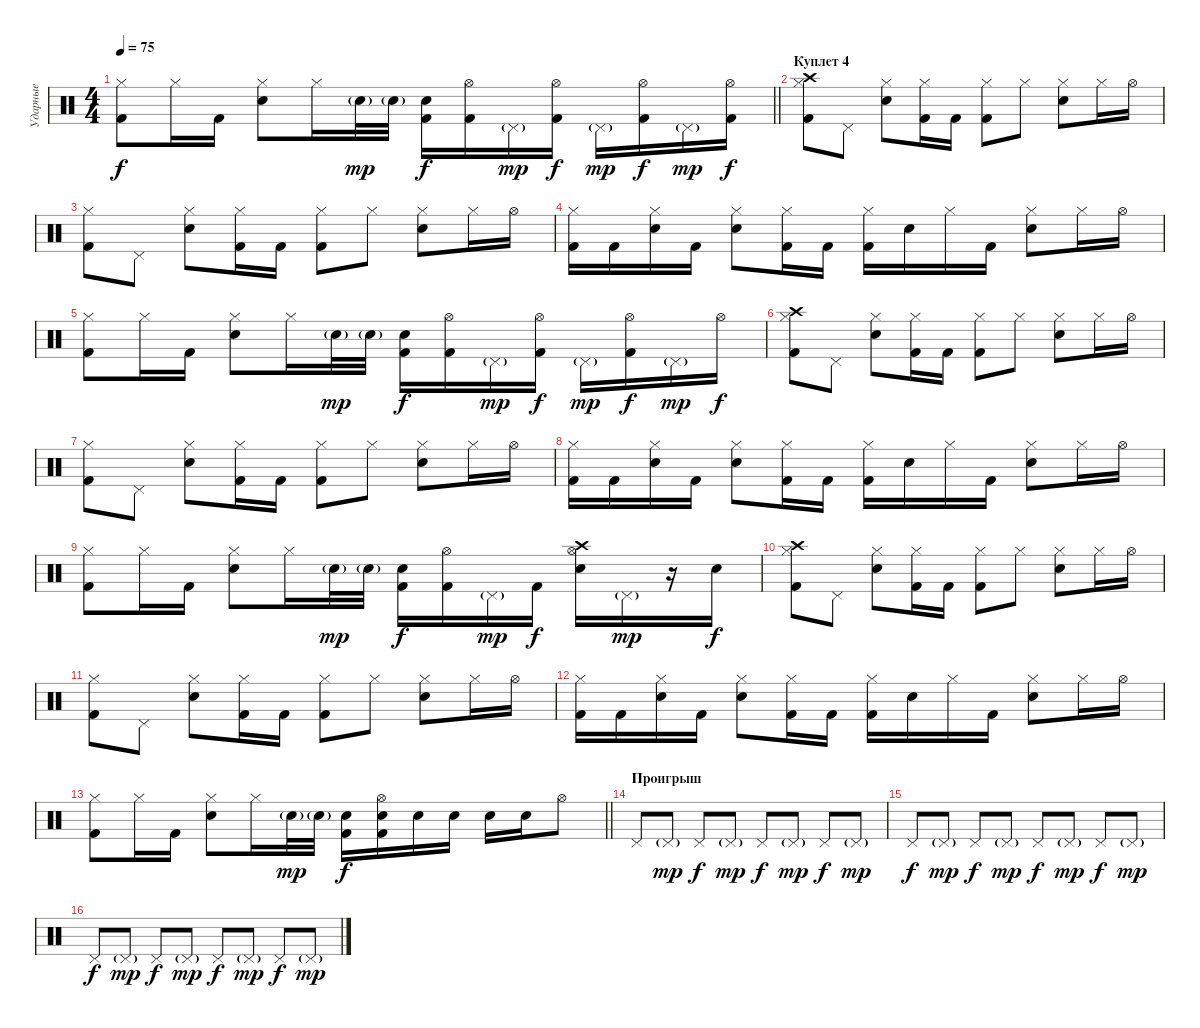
\track ("Ударные" "Ударные") {instrument percussion}
\staff {score}
\articulation defaults
\ts (4 4)
\tempo 75
\clef neutral
\barLineRight lightlight
\ks c
("Hi-Hat (closed)" "Kick (hit) 2").8{dy f} "Hi-Hat (closed)".16 "Kick (hit) 2".16 ("Hi-Hat (closed)" "Electric Snare (hit)").8 "Hi-Hat (closed)".16 "Electric Snare (hit)"{g}.32{dy mp} "Electric Snare (hit)"{g}.32 ("Electric Snare (hit)" "Kick (hit) 2").16{dy f} ("Hi-Hat (open)" "Kick (hit) 2").16 "Pedal Hi-Hat (hit)"{g}.16{dy mp} ("Hi-Hat (open)" "Kick (hit) 2").16{dy f} "Pedal Hi-Hat (hit)"{g}.16{dy mp} ("Hi-Hat (open)" "Kick (hit) 2").16{dy f} "Pedal Hi-Hat (hit)"{g}.16{dy mp} ("Hi-Hat (open)" "Kick (hit) 2").16{dy f} |
\section ("" "Куплет 4")
("Crash high (hit)" "Hi-Hat (closed)" "Kick (hit) 2").8 "Pedal Hi-Hat (hit)".8 ("Hi-Hat (closed)" "Electric Snare (hit)").8 ("Hi-Hat (closed)" "Kick (hit) 2").16 "Kick (hit) 2".16 ("Hi-Hat (closed)" "Kick (hit) 2").8 "Hi-Hat (closed)".8 ("Hi-Hat (closed)" "Electric Snare (hit)").8 "Hi-Hat (closed)".16 "Hi-Hat (open)".16 |
("Hi-Hat (closed)" "Kick (hit) 2").8 "Pedal Hi-Hat (hit)".8 ("Hi-Hat (closed)" "Electric Snare (hit)").8 ("Hi-Hat (closed)" "Kick (hit) 2").16 "Kick (hit) 2".16 ("Hi-Hat (closed)" "Kick (hit) 2").8 "Hi-Hat (closed)".8 ("Hi-Hat (closed)" "Electric Snare (hit)").8 "Hi-Hat (closed)".16 "Hi-Hat (open)".16 |
("Hi-Hat (closed)" "Kick (hit) 2").16 "Kick (hit) 2".16 ("Hi-Hat (closed)" "Electric Snare (hit)").16 "Kick (hit) 2".16 ("Hi-Hat (closed)" "Electric Snare (hit)").8 ("Hi-Hat (closed)" "Kick (hit) 2").16 "Kick (hit) 2".16 ("Hi-Hat (closed)" "Kick (hit) 2").16 "Electric Snare (hit)".16 "Hi-Hat (closed)".16 "Kick (hit) 2".16 ("Hi-Hat (closed)" "Electric Snare (hit)").8 "Hi-Hat (closed)".16 "Hi-Hat (open)".16 |
("Hi-Hat (closed)" "Kick (hit) 2").8 "Hi-Hat (closed)".16 "Kick (hit) 2".16 ("Hi-Hat (closed)" "Electric Snare (hit)").8 "Hi-Hat (closed)".16 "Electric Snare (hit)"{g}.32{dy mp} "Electric Snare (hit)"{g}.32 ("Electric Snare (hit)" "Kick (hit) 2").16{dy f} ("Hi-Hat (open)" "Kick (hit) 2").16 "Pedal Hi-Hat (hit)"{g}.16{dy mp} ("Hi-Hat (open)" "Kick (hit) 2").16{dy f} "Pedal Hi-Hat (hit)"{g}.16{dy mp} ("Hi-Hat (open)" "Kick (hit) 2").16{dy f} "Pedal Hi-Hat (hit)"{g}.16{dy mp} "Hi-Hat (open)".16{dy f} |
("Crash high (hit)" "Hi-Hat (closed)" "Kick (hit) 2").8 "Pedal Hi-Hat (hit)".8 ("Hi-Hat (closed)" "Electric Snare (hit)").8 ("Hi-Hat (closed)" "Kick (hit) 2").16 "Kick (hit) 2".16 ("Hi-Hat (closed)" "Kick (hit) 2").8 "Hi-Hat (closed)".8 ("Hi-Hat (closed)" "Electric Snare (hit)").8 "Hi-Hat (closed)".16 "Hi-Hat (open)".16 |
("Hi-Hat (closed)" "Kick (hit) 2").8 "Pedal Hi-Hat (hit)".8 ("Hi-Hat (closed)" "Electric Snare (hit)").8 ("Hi-Hat (closed)" "Kick (hit) 2").16 "Kick (hit) 2".16 ("Hi-Hat (closed)" "Kick (hit) 2").8 "Hi-Hat (closed)".8 ("Hi-Hat (closed)" "Electric Snare (hit)").8 "Hi-Hat (closed)".16 "Hi-Hat (open)".16 |
("Hi-Hat (closed)" "Kick (hit) 2").16 "Kick (hit) 2".16 ("Hi-Hat (closed)" "Electric Snare (hit)").16 "Kick (hit) 2".16 ("Hi-Hat (closed)" "Electric Snare (hit)").8 ("Hi-Hat (closed)" "Kick (hit) 2").16 "Kick (hit) 2".16 ("Hi-Hat (closed)" "Kick (hit) 2").16 "Electric Snare (hit)".16 "Hi-Hat (closed)".16 "Kick (hit) 2".16 ("Hi-Hat (closed)" "Electric Snare (hit)").8 "Hi-Hat (closed)".16 "Hi-Hat (open)".16 |
("Hi-Hat (closed)" "Kick (hit) 2").8 "Hi-Hat (closed)".16 "Kick (hit) 2".16 ("Hi-Hat (closed)" "Electric Snare (hit)").8 "Hi-Hat (closed)".16 "Electric Snare (hit)"{g}.32{dy mp} "Electric Snare (hit)"{g}.32 ("Electric Snare (hit)" "Kick (hit) 2").16{dy f} ("Hi-Hat (open)" "Kick (hit) 2").16 "Pedal Hi-Hat (hit)"{g}.16{dy mp} "Kick (hit) 2".16{dy f} ("Crash high (hit)" "Hi-Hat (open)" "Electric Snare (hit)").16 "Pedal Hi-Hat (hit)"{g}.16{dy mp} r.16 "Electric Snare (hit)".16{dy f} |
("Crash high (hit)" "Hi-Hat (closed)" "Kick (hit) 2").8 "Pedal Hi-Hat (hit)".8 ("Hi-Hat (closed)" "Electric Snare (hit)").8 ("Hi-Hat (closed)" "Kick (hit) 2").16 "Kick (hit) 2".16 ("Hi-Hat (closed)" "Kick (hit) 2").8 "Hi-Hat (closed)".8 ("Hi-Hat (closed)" "Electric Snare (hit)").8 "Hi-Hat (closed)".16 "Hi-Hat (open)".16 |
("Hi-Hat (closed)" "Kick (hit) 2").8 "Pedal Hi-Hat (hit)".8 ("Hi-Hat (closed)" "Electric Snare (hit)").8 ("Hi-Hat (closed)" "Kick (hit) 2").16 "Kick (hit) 2".16 ("Hi-Hat (closed)" "Kick (hit) 2").8 "Hi-Hat (closed)".8 ("Hi-Hat (closed)" "Electric Snare (hit)").8 "Hi-Hat (closed)".16 "Hi-Hat (open)".16 |
("Hi-Hat (closed)" "Kick (hit) 2").16 "Kick (hit) 2".16 ("Hi-Hat (closed)" "Electric Snare (hit)").16 "Kick (hit) 2".16 ("Hi-Hat (closed)" "Electric Snare (hit)").8 ("Hi-Hat (closed)" "Kick (hit) 2").16 "Kick (hit) 2".16 ("Hi-Hat (closed)" "Kick (hit) 2").16 "Electric Snare (hit)".16 "Hi-Hat (closed)".16 "Kick (hit) 2".16 ("Hi-Hat (closed)" "Electric Snare (hit)").8 "Hi-Hat (closed)".16 "Hi-Hat (open)".16 |
\barLineRight lightlight
("Hi-Hat (closed)" "Kick (hit) 2").8 "Hi-Hat (closed)".16 "Kick (hit) 2".16 ("Hi-Hat (closed)" "Electric Snare (hit)").8 "Hi-Hat (closed)".16 "Electric Snare (hit)"{g}.32{dy mp} "Electric Snare (hit)"{g}.32 ("Electric Snare (hit)" "Kick (hit) 2").16{dy f} ("Hi-Hat (open)" "Electric Snare (hit)" "Kick (hit) 2").16 "Electric Snare (hit)".16 "Electric Snare (hit)".16 "Electric Snare (hit)".16 "Electric Snare (hit)".16 "Hi-Hat (open)".8 |
\section ("" "Проигрыш")
"Pedal Hi-Hat (hit)".8 "Pedal Hi-Hat (hit)"{g}.8{dy mp} "Pedal Hi-Hat (hit)".8{dy f} "Pedal Hi-Hat (hit)"{g}.8{dy mp} "Pedal Hi-Hat (hit)".8{dy f} "Pedal Hi-Hat (hit)"{g}.8{dy mp} "Pedal Hi-Hat (hit)".8{dy f} "Pedal Hi-Hat (hit)"{g}.8{dy mp} |
"Pedal Hi-Hat (hit)".8{dy f} "Pedal Hi-Hat (hit)"{g}.8{dy mp} "Pedal Hi-Hat (hit)".8{dy f} "Pedal Hi-Hat (hit)"{g}.8{dy mp} "Pedal Hi-Hat (hit)".8{dy f} "Pedal Hi-Hat (hit)"{g}.8{dy mp} "Pedal Hi-Hat (hit)".8{dy f} "Pedal Hi-Hat (hit)"{g}.8{dy mp} |
"Pedal Hi-Hat (hit)".8{dy f} "Pedal Hi-Hat (hit)"{g}.8{dy mp} "Pedal Hi-Hat (hit)".8{dy f} "Pedal Hi-Hat (hit)"{g}.8{dy mp} "Pedal Hi-Hat (hit)".8{dy f} "Pedal Hi-Hat (hit)"{g}.8{dy mp} "Pedal Hi-Hat (hit)".8{dy f} "Pedal Hi-Hat (hit)"{g}.8{dy mp}
